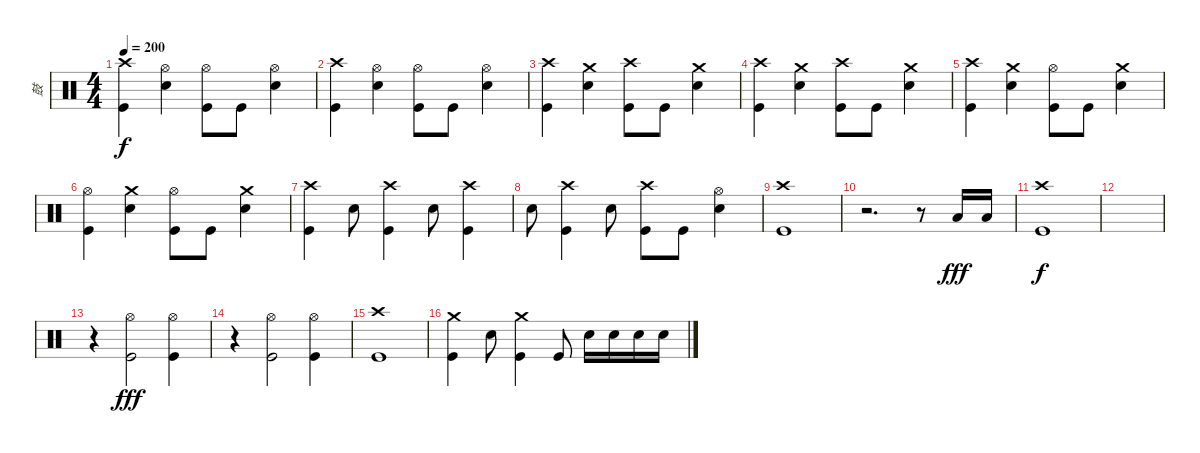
\track ("鼓" "鼓") {instrument percussion}
\staff {score}
\articulation defaults
\ts (4 4)
\tempo 200
\clef neutral
\ks c
("Crash high (hit)" "Kick (hit)").4{dy f} ("Hi-Hat (open)" "Snare (hit) 2").4 ("Hi-Hat (open)" "Kick (hit)").8 "Kick (hit)".8 ("Hi-Hat (open)" "Snare (hit) 2").4 |
("Crash high (hit)" "Kick (hit)").4 ("Hi-Hat (open)" "Snare (hit) 2").4 ("Hi-Hat (open)" "Kick (hit)").8 "Kick (hit)".8 ("Hi-Hat (open)" "Snare (hit) 2").4 |
("Crash high (hit)" "Kick (hit)").4 ("Crash medium (hit)" "Snare (hit) 2").4 ("Crash high (hit)" "Kick (hit)").8 "Kick (hit)".8 ("Crash medium (hit)" "Snare (hit) 2").4 |
("Crash high (hit)" "Kick (hit)").4 ("Crash medium (hit)" "Snare (hit) 2").4 ("Crash high (hit)" "Kick (hit)").8 "Kick (hit)".8 ("Crash medium (hit)" "Snare (hit) 2").4 |
("Crash high (hit)" "Kick (hit)").4 ("Crash medium (hit)" "Snare (hit) 2").4 ("Hi-Hat (open)" "Kick (hit)").8 "Kick (hit)".8 ("Crash medium (hit)" "Snare (hit) 2").4 |
("Hi-Hat (open)" "Kick (hit)").4 ("Crash medium (hit)" "Snare (hit) 2").4 ("Hi-Hat (open)" "Kick (hit)").8 "Kick (hit)".8 ("Crash medium (hit)" "Snare (hit) 2").4 |
("Crash high (hit)" "Kick (hit)").4 "Snare (hit) 2".8 ("Crash high (hit)" "Kick (hit)").4 "Snare (hit) 2".8 ("Crash high (hit)" "Kick (hit)").4 |
"Snare (hit) 2".8 ("Crash high (hit)" "Kick (hit)").4 "Snare (hit) 2".8 ("Crash high (hit)" "Kick (hit)").8 "Kick (hit)".8 ("Hi-Hat (open)" "Snare (hit) 2").4 |
("Crash high (hit)" "Kick (hit)").1 |
r.2{d} r.8 "Low Floor Tom (hit)".16{dy fff} "Low Floor Tom (hit)".16 |
("Crash high (hit)" "Kick (hit)").1{dy f} |
|
r.4 ("Hi-Hat (open)" "Kick (hit)").2{dy fff} ("Hi-Hat (open)" "Kick (hit)").4 |
r.4 ("Hi-Hat (open)" "Kick (hit)").2 ("Hi-Hat (open)" "Kick (hit)").4 |
("Crash high (hit)" "Kick (hit)").1 |
("Crash medium (hit)" "Kick (hit)").4 "Snare (hit) 2".8 ("Crash medium (hit)" "Kick (hit)").4 "Kick (hit)".8 "Snare (hit) 2".16 "Snare (hit) 2".16 "Snare (hit) 2".16 "Snare (hit) 2".16
